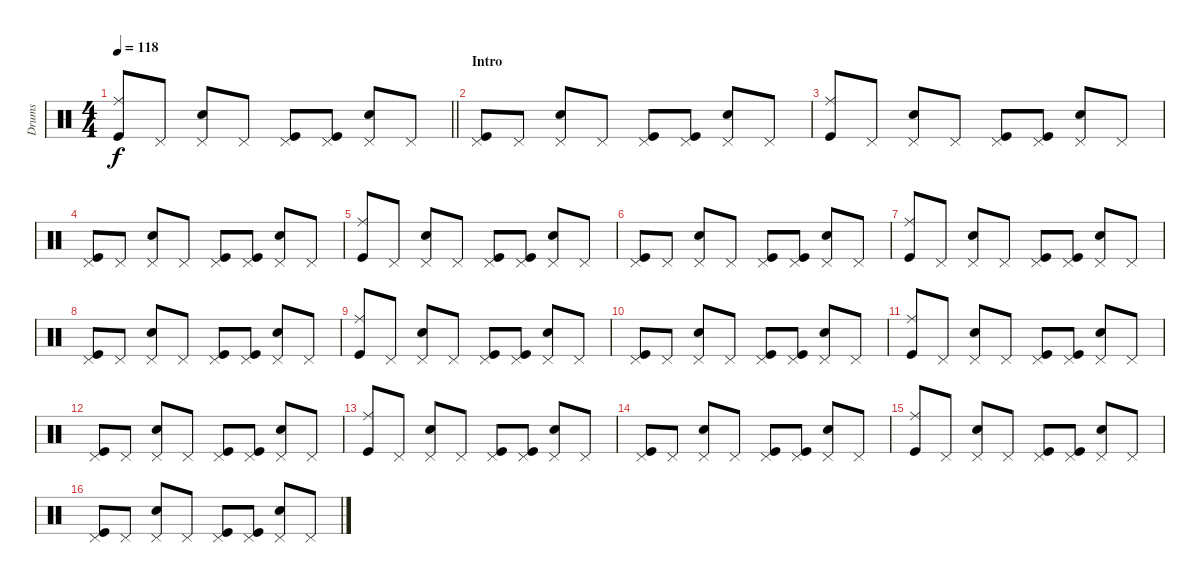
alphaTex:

\track ("Drums" "Drums") {instrument percussion}
\staff {score}
\articulation defaults
\ts (4 4)
\tempo 118
\clef neutral
\barLineRight lightlight
\ks c
("Kick (hit)" "Ride (middle)").8{dy f} "Pedal Hi-Hat (hit)".8 ("Snare (hit) 2" "Pedal Hi-Hat (hit)").8 "Pedal Hi-Hat (hit)".8 ("Kick (hit)" "Pedal Hi-Hat (hit)").8 ("Kick (hit)" "Pedal Hi-Hat (hit)").8 ("Snare (hit) 2" "Pedal Hi-Hat (hit)").8 "Pedal Hi-Hat (hit)".8 |
\section ("" "Intro")
("Kick (hit)" "Pedal Hi-Hat (hit)").8 "Pedal Hi-Hat (hit)".8 ("Snare (hit) 2" "Pedal Hi-Hat (hit)").8 "Pedal Hi-Hat (hit)".8 ("Kick (hit)" "Pedal Hi-Hat (hit)").8 ("Kick (hit)" "Pedal Hi-Hat (hit)").8 ("Snare (hit) 2" "Pedal Hi-Hat (hit)").8 "Pedal Hi-Hat (hit)".8 |
("Kick (hit)" "Ride (middle)").8 "Pedal Hi-Hat (hit)".8 ("Snare (hit) 2" "Pedal Hi-Hat (hit)").8 "Pedal Hi-Hat (hit)".8 ("Kick (hit)" "Pedal Hi-Hat (hit)").8 ("Kick (hit)" "Pedal Hi-Hat (hit)").8 ("Snare (hit) 2" "Pedal Hi-Hat (hit)").8 "Pedal Hi-Hat (hit)".8 |
("Kick (hit)" "Pedal Hi-Hat (hit)").8 "Pedal Hi-Hat (hit)".8 ("Snare (hit) 2" "Pedal Hi-Hat (hit)").8 "Pedal Hi-Hat (hit)".8 ("Kick (hit)" "Pedal Hi-Hat (hit)").8 ("Kick (hit)" "Pedal Hi-Hat (hit)").8 ("Snare (hit) 2" "Pedal Hi-Hat (hit)").8 "Pedal Hi-Hat (hit)".8 |
("Kick (hit)" "Ride (middle)").8 "Pedal Hi-Hat (hit)".8 ("Snare (hit) 2" "Pedal Hi-Hat (hit)").8 "Pedal Hi-Hat (hit)".8 ("Kick (hit)" "Pedal Hi-Hat (hit)").8 ("Kick (hit)" "Pedal Hi-Hat (hit)").8 ("Snare (hit) 2" "Pedal Hi-Hat (hit)").8 "Pedal Hi-Hat (hit)".8 |
("Kick (hit)" "Pedal Hi-Hat (hit)").8 "Pedal Hi-Hat (hit)".8 ("Snare (hit) 2" "Pedal Hi-Hat (hit)").8 "Pedal Hi-Hat (hit)".8 ("Kick (hit)" "Pedal Hi-Hat (hit)").8 ("Kick (hit)" "Pedal Hi-Hat (hit)").8 ("Snare (hit) 2" "Pedal Hi-Hat (hit)").8 "Pedal Hi-Hat (hit)".8 |
("Kick (hit)" "Ride (middle)").8 "Pedal Hi-Hat (hit)".8 ("Snare (hit) 2" "Pedal Hi-Hat (hit)").8 "Pedal Hi-Hat (hit)".8 ("Kick (hit)" "Pedal Hi-Hat (hit)").8 ("Kick (hit)" "Pedal Hi-Hat (hit)").8 ("Snare (hit) 2" "Pedal Hi-Hat (hit)").8 "Pedal Hi-Hat (hit)".8 |
("Kick (hit)" "Pedal Hi-Hat (hit)").8 "Pedal Hi-Hat (hit)".8 ("Snare (hit) 2" "Pedal Hi-Hat (hit)").8 "Pedal Hi-Hat (hit)".8 ("Kick (hit)" "Pedal Hi-Hat (hit)").8 ("Kick (hit)" "Pedal Hi-Hat (hit)").8 ("Snare (hit) 2" "Pedal Hi-Hat (hit)").8 "Pedal Hi-Hat (hit)".8 |
("Kick (hit)" "Ride (middle)").8 "Pedal Hi-Hat (hit)".8 ("Snare (hit) 2" "Pedal Hi-Hat (hit)").8 "Pedal Hi-Hat (hit)".8 ("Kick (hit)" "Pedal Hi-Hat (hit)").8 ("Kick (hit)" "Pedal Hi-Hat (hit)").8 ("Snare (hit) 2" "Pedal Hi-Hat (hit)").8 "Pedal Hi-Hat (hit)".8 |
("Kick (hit)" "Pedal Hi-Hat (hit)").8 "Pedal Hi-Hat (hit)".8 ("Snare (hit) 2" "Pedal Hi-Hat (hit)").8 "Pedal Hi-Hat (hit)".8 ("Kick (hit)" "Pedal Hi-Hat (hit)").8 ("Kick (hit)" "Pedal Hi-Hat (hit)").8 ("Snare (hit) 2" "Pedal Hi-Hat (hit)").8 "Pedal Hi-Hat (hit)".8 |
("Kick (hit)" "Ride (middle)").8 "Pedal Hi-Hat (hit)".8 ("Snare (hit) 2" "Pedal Hi-Hat (hit)").8 "Pedal Hi-Hat (hit)".8 ("Kick (hit)" "Pedal Hi-Hat (hit)").8 ("Kick (hit)" "Pedal Hi-Hat (hit)").8 ("Snare (hit) 2" "Pedal Hi-Hat (hit)").8 "Pedal Hi-Hat (hit)".8 |
("Kick (hit)" "Pedal Hi-Hat (hit)").8 "Pedal Hi-Hat (hit)".8 ("Snare (hit) 2" "Pedal Hi-Hat (hit)").8 "Pedal Hi-Hat (hit)".8 ("Kick (hit)" "Pedal Hi-Hat (hit)").8 ("Kick (hit)" "Pedal Hi-Hat (hit)").8 ("Snare (hit) 2" "Pedal Hi-Hat (hit)").8 "Pedal Hi-Hat (hit)".8 |
("Kick (hit)" "Ride (middle)").8 "Pedal Hi-Hat (hit)".8 ("Snare (hit) 2" "Pedal Hi-Hat (hit)").8 "Pedal Hi-Hat (hit)".8 ("Kick (hit)" "Pedal Hi-Hat (hit)").8 ("Kick (hit)" "Pedal Hi-Hat (hit)").8 ("Snare (hit) 2" "Pedal Hi-Hat (hit)").8 "Pedal Hi-Hat (hit)".8 |
("Kick (hit)" "Pedal Hi-Hat (hit)").8 "Pedal Hi-Hat (hit)".8 ("Snare (hit) 2" "Pedal Hi-Hat (hit)").8 "Pedal Hi-Hat (hit)".8 ("Kick (hit)" "Pedal Hi-Hat (hit)").8 ("Kick (hit)" "Pedal Hi-Hat (hit)").8 ("Snare (hit) 2" "Pedal Hi-Hat (hit)").8 "Pedal Hi-Hat (hit)".8 |
("Kick (hit)" "Ride (middle)").8 "Pedal Hi-Hat (hit)".8 ("Snare (hit) 2" "Pedal Hi-Hat (hit)").8 "Pedal Hi-Hat (hit)".8 ("Kick (hit)" "Pedal Hi-Hat (hit)").8 ("Kick (hit)" "Pedal Hi-Hat (hit)").8 ("Snare (hit) 2" "Pedal Hi-Hat (hit)").8 "Pedal Hi-Hat (hit)".8 |
("Kick (hit)" "Pedal Hi-Hat (hit)").8 "Pedal Hi-Hat (hit)".8 ("Snare (hit) 2" "Pedal Hi-Hat (hit)").8 "Pedal Hi-Hat (hit)".8 ("Kick (hit)" "Pedal Hi-Hat (hit)").8 ("Kick (hit)" "Pedal Hi-Hat (hit)").8 ("Snare (hit) 2" "Pedal Hi-Hat (hit)").8 "Pedal Hi-Hat (hit)".8
